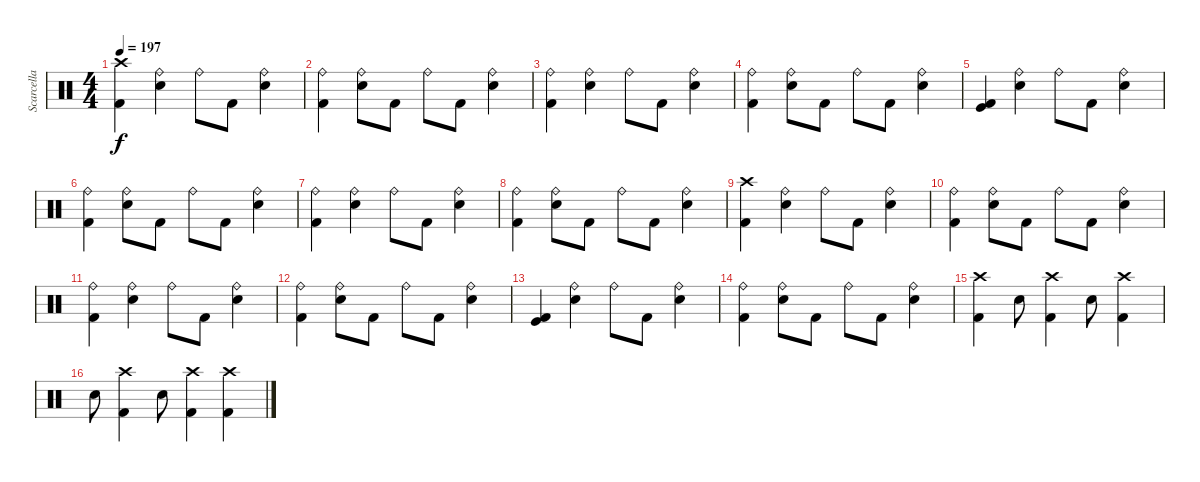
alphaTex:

\track ("Scarcella" "Scarcella") {instrument percussion}
\staff {score}
\articulation defaults
\ts (4 4)
\tempo 197
\clef neutral
\ks c
("Crash high (hit)" "Kick (hit) 2").4{dy f} ("Ride (bell)" "Electric Snare (hit)").4 "Ride (bell)".8 "Kick (hit) 2".8 ("Ride (bell)" "Electric Snare (hit)").4 |
("Ride (bell)" "Kick (hit) 2").4 ("Ride (bell)" "Electric Snare (hit)").8 "Kick (hit) 2".8 "Ride (bell)".8 "Kick (hit) 2".8 ("Ride (bell)" "Electric Snare (hit)").4 |
("Ride (bell)" "Kick (hit) 2").4 ("Ride (bell)" "Electric Snare (hit)").4 "Ride (bell)".8 "Kick (hit) 2".8 ("Ride (bell)" "Electric Snare (hit)").4 |
("Ride (bell)" "Kick (hit) 2").4 ("Ride (bell)" "Electric Snare (hit)").8 "Kick (hit) 2".8 "Ride (bell)".8 "Kick (hit) 2".8 ("Ride (bell)" "Electric Snare (hit)").4 |
("Kick (hit)" "Kick (hit) 2").4 ("Ride (bell)" "Electric Snare (hit)").4 "Ride (bell)".8 "Kick (hit) 2".8 ("Ride (bell)" "Electric Snare (hit)").4 |
("Ride (bell)" "Kick (hit) 2").4 ("Ride (bell)" "Electric Snare (hit)").8 "Kick (hit) 2".8 "Ride (bell)".8 "Kick (hit) 2".8 ("Ride (bell)" "Electric Snare (hit)").4 |
("Ride (bell)" "Kick (hit) 2").4 ("Ride (bell)" "Electric Snare (hit)").4 "Ride (bell)".8 "Kick (hit) 2".8 ("Ride (bell)" "Electric Snare (hit)").4 |
("Ride (bell)" "Kick (hit) 2").4 ("Ride (bell)" "Electric Snare (hit)").8 "Kick (hit) 2".8 "Ride (bell)".8 "Kick (hit) 2".8 ("Ride (bell)" "Electric Snare (hit)").4 |
("Crash high (hit)" "Kick (hit) 2").4 ("Ride (bell)" "Electric Snare (hit)").4 "Ride (bell)".8 "Kick (hit) 2".8 ("Ride (bell)" "Electric Snare (hit)").4 |
("Ride (bell)" "Kick (hit) 2").4 ("Ride (bell)" "Electric Snare (hit)").8 "Kick (hit) 2".8 "Ride (bell)".8 "Kick (hit) 2".8 ("Ride (bell)" "Electric Snare (hit)").4 |
("Ride (bell)" "Kick (hit) 2").4 ("Ride (bell)" "Electric Snare (hit)").4 "Ride (bell)".8 "Kick (hit) 2".8 ("Ride (bell)" "Electric Snare (hit)").4 |
("Ride (bell)" "Kick (hit) 2").4 ("Ride (bell)" "Electric Snare (hit)").8 "Kick (hit) 2".8 "Ride (bell)".8 "Kick (hit) 2".8 ("Ride (bell)" "Electric Snare (hit)").4 |
("Kick (hit)" "Kick (hit) 2").4 ("Ride (bell)" "Electric Snare (hit)").4 "Ride (bell)".8 "Kick (hit) 2".8 ("Ride (bell)" "Electric Snare (hit)").4 |
("Ride (bell)" "Kick (hit) 2").4 ("Ride (bell)" "Electric Snare (hit)").8 "Kick (hit) 2".8 "Ride (bell)".8 "Kick (hit) 2".8 ("Ride (bell)" "Electric Snare (hit)").4 |
("Crash high (hit)" "Kick (hit) 2").4 "Electric Snare (hit)".8 ("Crash high (hit)" "Kick (hit) 2").4 "Electric Snare (hit)".8 ("Crash high (hit)" "Kick (hit) 2").4 |
"Electric Snare (hit)".8 ("Crash high (hit)" "Kick (hit) 2").4 "Electric Snare (hit)".8 ("Crash high (hit)" "Kick (hit) 2").4 ("Crash high (hit)" "Kick (hit) 2").4
